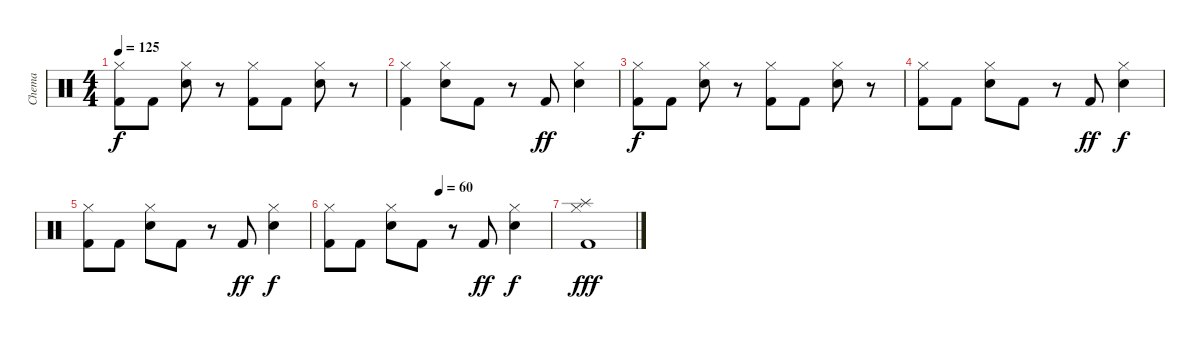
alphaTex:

\track ("Chema" "Chema") {instrument percussion}
\staff {score}
\articulation defaults
\ts (4 4)
\tempo 125
\clef neutral
\ks c
("Hi-Hat (closed)" "Kick (hit) 2").8{dy f} "Kick (hit) 2".8 ("Hi-Hat (closed)" "Snare (hit) 2").8 r.8 ("Hi-Hat (closed)" "Kick (hit) 2").8 "Kick (hit) 2".8 ("Hi-Hat (closed)" "Snare (hit) 2").8 r.8 |
("Hi-Hat (closed)" "Kick (hit) 2").4 ("Hi-Hat (closed)" "Snare (hit) 2").8 "Kick (hit) 2".8 r.8 "Kick (hit) 2".8{dy ff} ("Hi-Hat (closed)" "Snare (hit) 2").4 |
("Hi-Hat (closed)" "Kick (hit) 2").8{dy f} "Kick (hit) 2".8 ("Hi-Hat (closed)" "Snare (hit) 2").8 r.8 ("Hi-Hat (closed)" "Kick (hit) 2").8 "Kick (hit) 2".8 ("Hi-Hat (closed)" "Snare (hit) 2").8 r.8 |
("Hi-Hat (closed)" "Kick (hit) 2").8 "Kick (hit) 2".8 ("Hi-Hat (closed)" "Snare (hit) 2").8 "Kick (hit) 2".8 r.8 "Kick (hit) 2".8{dy ff} ("Hi-Hat (closed)" "Snare (hit) 2").4{dy f} |
("Hi-Hat (closed)" "Kick (hit) 2").8 "Kick (hit) 2".8 ("Hi-Hat (closed)" "Snare (hit) 2").8 "Kick (hit) 2".8 r.8 "Kick (hit) 2".8{dy ff} ("Hi-Hat (closed)" "Snare (hit) 2").4{dy f} |
\tempo (60 0.5)
("Hi-Hat (closed)" "Kick (hit) 2").8 "Kick (hit) 2".8 ("Hi-Hat (closed)" "Snare (hit) 2").8 "Kick (hit) 2".8 r.8 "Kick (hit) 2".8{dy ff} ("Hi-Hat (closed)" "Snare (hit) 2").4{dy f} |
("Hi-Hat (closed)" "Kick (hit) 2" "Splash (hit)").1{dy fff}
